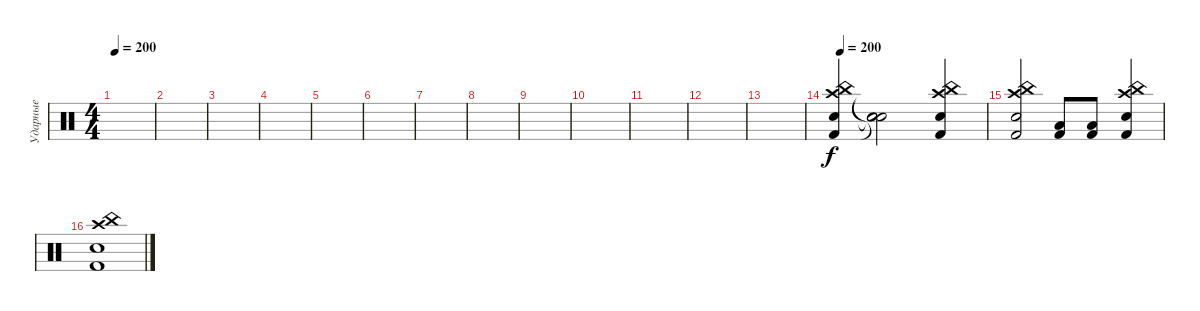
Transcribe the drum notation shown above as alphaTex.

\track ("Ударные" "Ударные") {instrument percussion}
\staff {score}
\articulation defaults
\ts (4 4)
\tempo 200
\clef neutral
\ks c
|
|
|
|
|
|
|
|
|
|
|
|
|
\tempo 200
("Electric Snare (hit)" "Crash high (hit)" "China (hit)" "Kick (hit) 2").4 ("Snare (hit)"{t} "Snare (hit)"{t} "Snare (hit)"{t} "Snare (hit)"{t}).2 ("Kick (hit) 2" "Electric Snare (hit)" "Crash high (hit)" "China (hit)").4 |
("Electric Snare (hit)" "Kick (hit) 2" "Crash high (hit)" "China (hit)").2 ("Kick (hit) 2" "Low Floor Tom (hit)").8 ("Low Floor Tom (hit)" "Kick (hit) 2").8 ("Kick (hit) 2" "Electric Snare (hit)" "Crash high (hit)" "China (hit)").4 |
("Electric Snare (hit)" "Kick (hit) 2" "Crash high (hit)" "China (hit)").1
